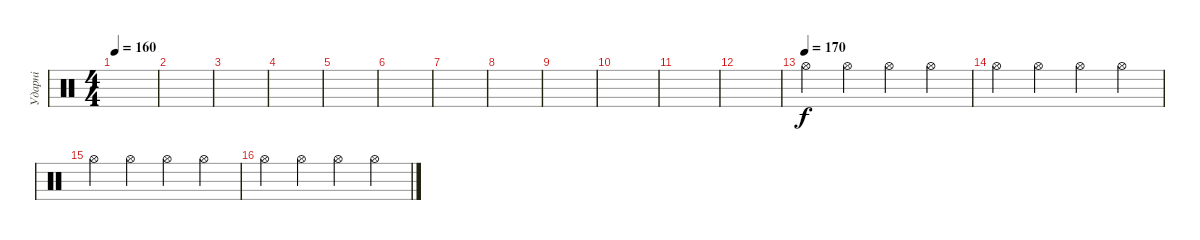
\track ("Ударні" "Ударні") {instrument percussion}
\staff {score}
\articulation defaults
\ts (4 4)
\tempo 160
\tempo 115
\tempo 160
\clef neutral
\ks c
|
|
|
|
|
|
|
|
|
|
|
|
\tempo (170)
"Hi-Hat (open)".4 "Hi-Hat (open)".4 "Hi-Hat (open)".4 "Hi-Hat (open)".4 |
"Hi-Hat (open)".4 "Hi-Hat (open)".4 "Hi-Hat (open)".4 "Hi-Hat (open)".4 |
"Hi-Hat (open)".4 "Hi-Hat (open)".4 "Hi-Hat (open)".4 "Hi-Hat (open)".4 |
"Hi-Hat (open)".4 "Hi-Hat (open)".4 "Hi-Hat (open)".4 "Hi-Hat (open)".4
